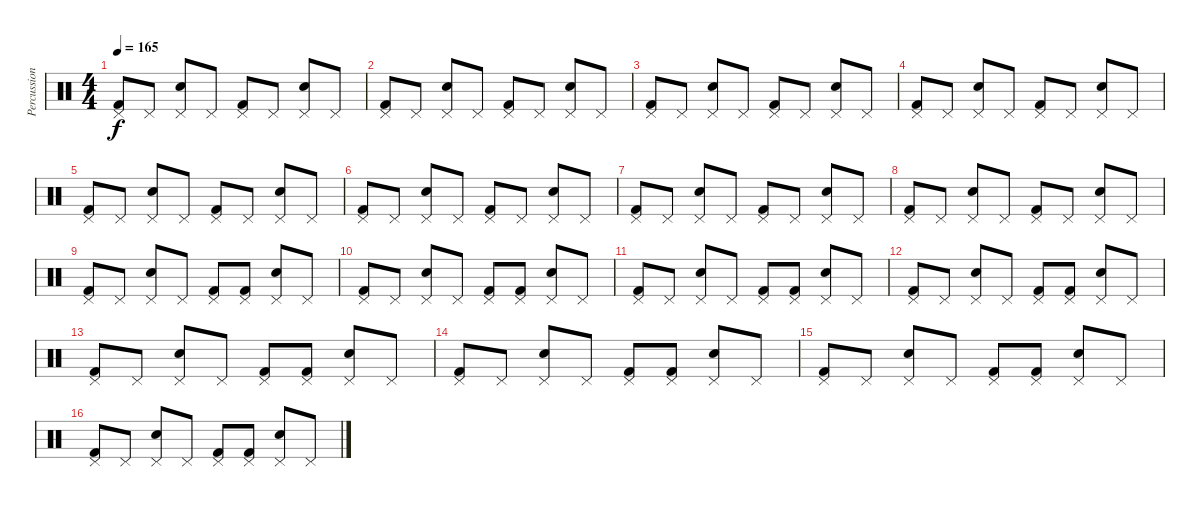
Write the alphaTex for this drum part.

\track ("Percussions" "Percussion") {instrument percussion}
\staff {score}
\articulation defaults
\ts (4 4)
\tempo 165
\clef neutral
\ks c
("Pedal Hi-Hat (hit)" "Kick (hit) 2").8{dy f} "Pedal Hi-Hat (hit)".8 ("Pedal Hi-Hat (hit)" "Electric Snare (hit)").8 "Pedal Hi-Hat (hit)".8 ("Pedal Hi-Hat (hit)" "Kick (hit) 2").8 "Pedal Hi-Hat (hit)".8 ("Pedal Hi-Hat (hit)" "Electric Snare (hit)").8 "Pedal Hi-Hat (hit)".8 |
("Pedal Hi-Hat (hit)" "Kick (hit) 2").8 "Pedal Hi-Hat (hit)".8 ("Pedal Hi-Hat (hit)" "Electric Snare (hit)").8 "Pedal Hi-Hat (hit)".8 ("Pedal Hi-Hat (hit)" "Kick (hit) 2").8 "Pedal Hi-Hat (hit)".8 ("Pedal Hi-Hat (hit)" "Electric Snare (hit)").8 "Pedal Hi-Hat (hit)".8 |
("Pedal Hi-Hat (hit)" "Kick (hit) 2").8 "Pedal Hi-Hat (hit)".8 ("Pedal Hi-Hat (hit)" "Electric Snare (hit)").8 "Pedal Hi-Hat (hit)".8 ("Pedal Hi-Hat (hit)" "Kick (hit) 2").8 "Pedal Hi-Hat (hit)".8 ("Pedal Hi-Hat (hit)" "Electric Snare (hit)").8 "Pedal Hi-Hat (hit)".8 |
("Pedal Hi-Hat (hit)" "Kick (hit) 2").8 "Pedal Hi-Hat (hit)".8 ("Pedal Hi-Hat (hit)" "Electric Snare (hit)").8 "Pedal Hi-Hat (hit)".8 ("Pedal Hi-Hat (hit)" "Kick (hit) 2").8 "Pedal Hi-Hat (hit)".8 ("Pedal Hi-Hat (hit)" "Electric Snare (hit)").8 "Pedal Hi-Hat (hit)".8 |
("Pedal Hi-Hat (hit)" "Kick (hit) 2").8 "Pedal Hi-Hat (hit)".8 ("Pedal Hi-Hat (hit)" "Electric Snare (hit)").8 "Pedal Hi-Hat (hit)".8 ("Pedal Hi-Hat (hit)" "Kick (hit) 2").8 "Pedal Hi-Hat (hit)".8 ("Pedal Hi-Hat (hit)" "Electric Snare (hit)").8 "Pedal Hi-Hat (hit)".8 |
("Pedal Hi-Hat (hit)" "Kick (hit) 2").8 "Pedal Hi-Hat (hit)".8 ("Pedal Hi-Hat (hit)" "Electric Snare (hit)").8 "Pedal Hi-Hat (hit)".8 ("Pedal Hi-Hat (hit)" "Kick (hit) 2").8 "Pedal Hi-Hat (hit)".8 ("Pedal Hi-Hat (hit)" "Electric Snare (hit)").8 "Pedal Hi-Hat (hit)".8 |
("Pedal Hi-Hat (hit)" "Kick (hit) 2").8 "Pedal Hi-Hat (hit)".8 ("Pedal Hi-Hat (hit)" "Electric Snare (hit)").8 "Pedal Hi-Hat (hit)".8 ("Pedal Hi-Hat (hit)" "Kick (hit) 2").8 "Pedal Hi-Hat (hit)".8 ("Pedal Hi-Hat (hit)" "Electric Snare (hit)").8 "Pedal Hi-Hat (hit)".8 |
("Pedal Hi-Hat (hit)" "Kick (hit) 2").8 "Pedal Hi-Hat (hit)".8 ("Pedal Hi-Hat (hit)" "Electric Snare (hit)").8 "Pedal Hi-Hat (hit)".8 ("Pedal Hi-Hat (hit)" "Kick (hit) 2").8 "Pedal Hi-Hat (hit)".8 ("Pedal Hi-Hat (hit)" "Electric Snare (hit)").8 "Pedal Hi-Hat (hit)".8 |
("Pedal Hi-Hat (hit)" "Kick (hit) 2").8 "Pedal Hi-Hat (hit)".8 ("Pedal Hi-Hat (hit)" "Electric Snare (hit)").8 "Pedal Hi-Hat (hit)".8 ("Pedal Hi-Hat (hit)" "Kick (hit) 2").8 ("Pedal Hi-Hat (hit)" "Kick (hit) 2").8 ("Pedal Hi-Hat (hit)" "Electric Snare (hit)").8 "Pedal Hi-Hat (hit)".8 |
("Pedal Hi-Hat (hit)" "Kick (hit) 2").8 "Pedal Hi-Hat (hit)".8 ("Pedal Hi-Hat (hit)" "Electric Snare (hit)").8 "Pedal Hi-Hat (hit)".8 ("Pedal Hi-Hat (hit)" "Kick (hit) 2").8 ("Pedal Hi-Hat (hit)" "Kick (hit) 2").8 ("Pedal Hi-Hat (hit)" "Electric Snare (hit)").8 "Pedal Hi-Hat (hit)".8 |
("Pedal Hi-Hat (hit)" "Kick (hit) 2").8 "Pedal Hi-Hat (hit)".8 ("Pedal Hi-Hat (hit)" "Electric Snare (hit)").8 "Pedal Hi-Hat (hit)".8 ("Pedal Hi-Hat (hit)" "Kick (hit) 2").8 ("Pedal Hi-Hat (hit)" "Kick (hit) 2").8 ("Pedal Hi-Hat (hit)" "Electric Snare (hit)").8 "Pedal Hi-Hat (hit)".8 |
("Pedal Hi-Hat (hit)" "Kick (hit) 2").8 "Pedal Hi-Hat (hit)".8 ("Pedal Hi-Hat (hit)" "Electric Snare (hit)").8 "Pedal Hi-Hat (hit)".8 ("Pedal Hi-Hat (hit)" "Kick (hit) 2").8 ("Pedal Hi-Hat (hit)" "Kick (hit) 2").8 ("Pedal Hi-Hat (hit)" "Electric Snare (hit)").8 "Pedal Hi-Hat (hit)".8 |
("Pedal Hi-Hat (hit)" "Kick (hit) 2").8 "Pedal Hi-Hat (hit)".8 ("Pedal Hi-Hat (hit)" "Electric Snare (hit)").8 "Pedal Hi-Hat (hit)".8 ("Pedal Hi-Hat (hit)" "Kick (hit) 2").8 ("Pedal Hi-Hat (hit)" "Kick (hit) 2").8 ("Pedal Hi-Hat (hit)" "Electric Snare (hit)").8 "Pedal Hi-Hat (hit)".8 |
("Pedal Hi-Hat (hit)" "Kick (hit) 2").8 "Pedal Hi-Hat (hit)".8 ("Pedal Hi-Hat (hit)" "Electric Snare (hit)").8 "Pedal Hi-Hat (hit)".8 ("Pedal Hi-Hat (hit)" "Kick (hit) 2").8 ("Pedal Hi-Hat (hit)" "Kick (hit) 2").8 ("Pedal Hi-Hat (hit)" "Electric Snare (hit)").8 "Pedal Hi-Hat (hit)".8 |
("Pedal Hi-Hat (hit)" "Kick (hit) 2").8 "Pedal Hi-Hat (hit)".8 ("Pedal Hi-Hat (hit)" "Electric Snare (hit)").8 "Pedal Hi-Hat (hit)".8 ("Pedal Hi-Hat (hit)" "Kick (hit) 2").8 ("Pedal Hi-Hat (hit)" "Kick (hit) 2").8 ("Pedal Hi-Hat (hit)" "Electric Snare (hit)").8 "Pedal Hi-Hat (hit)".8 |
("Pedal Hi-Hat (hit)" "Kick (hit) 2").8 "Pedal Hi-Hat (hit)".8 ("Pedal Hi-Hat (hit)" "Electric Snare (hit)").8 "Pedal Hi-Hat (hit)".8 ("Pedal Hi-Hat (hit)" "Kick (hit) 2").8 ("Pedal Hi-Hat (hit)" "Kick (hit) 2").8 ("Pedal Hi-Hat (hit)" "Electric Snare (hit)").8 "Pedal Hi-Hat (hit)".8
